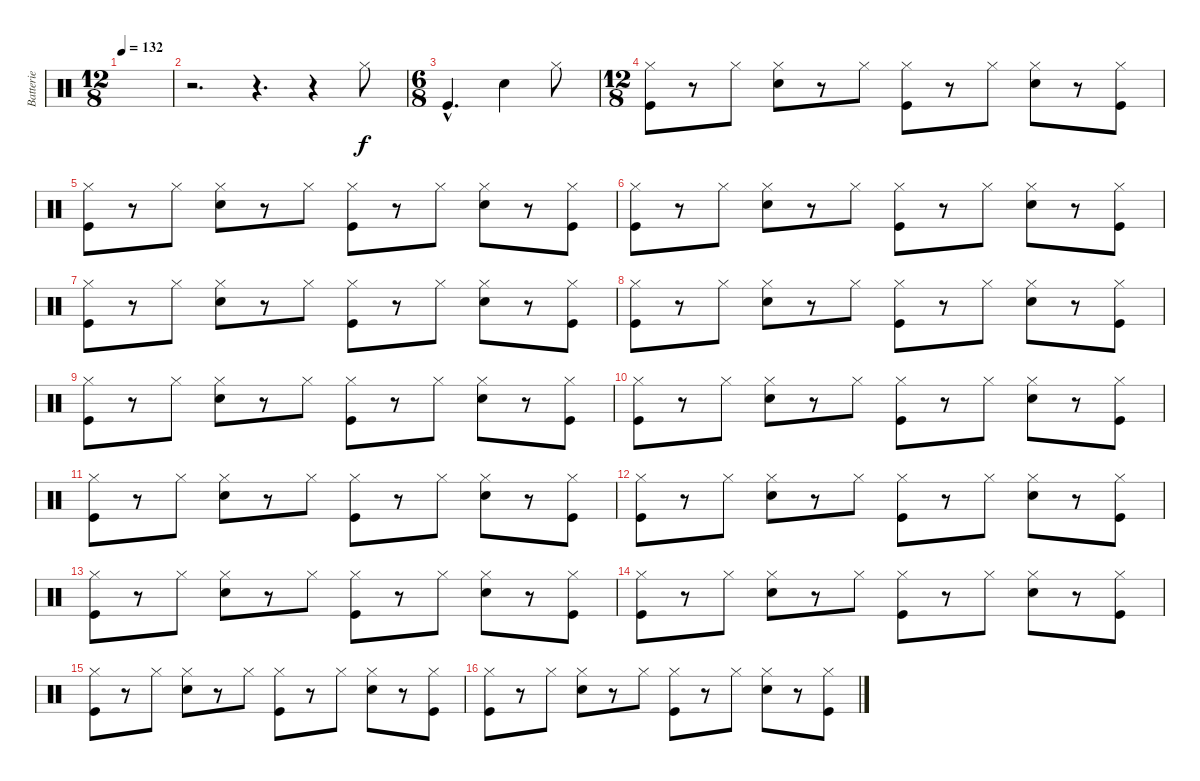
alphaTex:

\track ("Batterie" "Batterie") {instrument percussion}
\staff {score}
\articulation defaults
\ts (12 8)
\tempo 132
\clef neutral
\ks c
|
r.2{d} r.4{d} r.4 "Hi-Hat (closed)".8 |
\ts (6 8)
"Kick (hit)"{hac}.4{d} "Snare (hit) 2".4 "Hi-Hat (closed)".8 |
\ts (12 8)
("Hi-Hat (closed)" "Kick (hit)").8 r.8 "Hi-Hat (closed)".8 ("Hi-Hat (closed)" "Snare (hit) 2").8 r.8 "Hi-Hat (closed)".8 ("Hi-Hat (closed)" "Kick (hit)").8 r.8 "Hi-Hat (closed)".8 ("Hi-Hat (closed)" "Snare (hit) 2").8 r.8 ("Hi-Hat (closed)" "Kick (hit)").8 |
("Hi-Hat (closed)" "Kick (hit)").8 r.8 "Hi-Hat (closed)".8 ("Hi-Hat (closed)" "Snare (hit) 2").8 r.8 "Hi-Hat (closed)".8 ("Hi-Hat (closed)" "Kick (hit)").8 r.8 "Hi-Hat (closed)".8 ("Hi-Hat (closed)" "Snare (hit) 2").8 r.8 ("Hi-Hat (closed)" "Kick (hit)").8 |
("Hi-Hat (closed)" "Kick (hit)").8 r.8 "Hi-Hat (closed)".8 ("Hi-Hat (closed)" "Snare (hit) 2").8 r.8 "Hi-Hat (closed)".8 ("Hi-Hat (closed)" "Kick (hit)").8 r.8 "Hi-Hat (closed)".8 ("Hi-Hat (closed)" "Snare (hit) 2").8 r.8 ("Hi-Hat (closed)" "Kick (hit)").8 |
("Hi-Hat (closed)" "Kick (hit)").8 r.8 "Hi-Hat (closed)".8 ("Hi-Hat (closed)" "Snare (hit) 2").8 r.8 "Hi-Hat (closed)".8 ("Hi-Hat (closed)" "Kick (hit)").8 r.8 "Hi-Hat (closed)".8 ("Hi-Hat (closed)" "Snare (hit) 2").8 r.8 ("Hi-Hat (closed)" "Kick (hit)").8 |
("Hi-Hat (closed)" "Kick (hit)").8 r.8 "Hi-Hat (closed)".8 ("Hi-Hat (closed)" "Snare (hit) 2").8 r.8 "Hi-Hat (closed)".8 ("Hi-Hat (closed)" "Kick (hit)").8 r.8 "Hi-Hat (closed)".8 ("Hi-Hat (closed)" "Snare (hit) 2").8 r.8 ("Hi-Hat (closed)" "Kick (hit)").8 |
("Hi-Hat (closed)" "Kick (hit)").8 r.8 "Hi-Hat (closed)".8 ("Hi-Hat (closed)" "Snare (hit) 2").8 r.8 "Hi-Hat (closed)".8 ("Hi-Hat (closed)" "Kick (hit)").8 r.8 "Hi-Hat (closed)".8 ("Hi-Hat (closed)" "Snare (hit) 2").8 r.8 ("Hi-Hat (closed)" "Kick (hit)").8 |
("Hi-Hat (closed)" "Kick (hit)").8 r.8 "Hi-Hat (closed)".8 ("Hi-Hat (closed)" "Snare (hit) 2").8 r.8 "Hi-Hat (closed)".8 ("Hi-Hat (closed)" "Kick (hit)").8 r.8 "Hi-Hat (closed)".8 ("Hi-Hat (closed)" "Snare (hit) 2").8 r.8 ("Hi-Hat (closed)" "Kick (hit)").8 |
("Hi-Hat (closed)" "Kick (hit)").8 r.8 "Hi-Hat (closed)".8 ("Hi-Hat (closed)" "Snare (hit) 2").8 r.8 "Hi-Hat (closed)".8 ("Hi-Hat (closed)" "Kick (hit)").8 r.8 "Hi-Hat (closed)".8 ("Hi-Hat (closed)" "Snare (hit) 2").8 r.8 ("Hi-Hat (closed)" "Kick (hit)").8 |
("Hi-Hat (closed)" "Kick (hit)").8 r.8 "Hi-Hat (closed)".8 ("Hi-Hat (closed)" "Snare (hit) 2").8 r.8 "Hi-Hat (closed)".8 ("Hi-Hat (closed)" "Kick (hit)").8 r.8 "Hi-Hat (closed)".8 ("Hi-Hat (closed)" "Snare (hit) 2").8 r.8 ("Hi-Hat (closed)" "Kick (hit)").8 |
("Hi-Hat (closed)" "Kick (hit)").8 r.8 "Hi-Hat (closed)".8 ("Hi-Hat (closed)" "Snare (hit) 2").8 r.8 "Hi-Hat (closed)".8 ("Hi-Hat (closed)" "Kick (hit)").8 r.8 "Hi-Hat (closed)".8 ("Hi-Hat (closed)" "Snare (hit) 2").8 r.8 ("Hi-Hat (closed)" "Kick (hit)").8 |
("Hi-Hat (closed)" "Kick (hit)").8 r.8 "Hi-Hat (closed)".8 ("Hi-Hat (closed)" "Snare (hit) 2").8 r.8 "Hi-Hat (closed)".8 ("Hi-Hat (closed)" "Kick (hit)").8 r.8 "Hi-Hat (closed)".8 ("Hi-Hat (closed)" "Snare (hit) 2").8 r.8 ("Hi-Hat (closed)" "Kick (hit)").8 |
("Hi-Hat (closed)" "Kick (hit)").8 r.8 "Hi-Hat (closed)".8 ("Hi-Hat (closed)" "Snare (hit) 2").8 r.8 "Hi-Hat (closed)".8 ("Hi-Hat (closed)" "Kick (hit)").8 r.8 "Hi-Hat (closed)".8 ("Hi-Hat (closed)" "Snare (hit) 2").8 r.8 ("Hi-Hat (closed)" "Kick (hit)").8 |
("Hi-Hat (closed)" "Kick (hit)").8 r.8 "Hi-Hat (closed)".8 ("Hi-Hat (closed)" "Snare (hit) 2").8 r.8 "Hi-Hat (closed)".8 ("Hi-Hat (closed)" "Kick (hit)").8 r.8 "Hi-Hat (closed)".8 ("Hi-Hat (closed)" "Snare (hit) 2").8 r.8 ("Hi-Hat (closed)" "Kick (hit)").8
